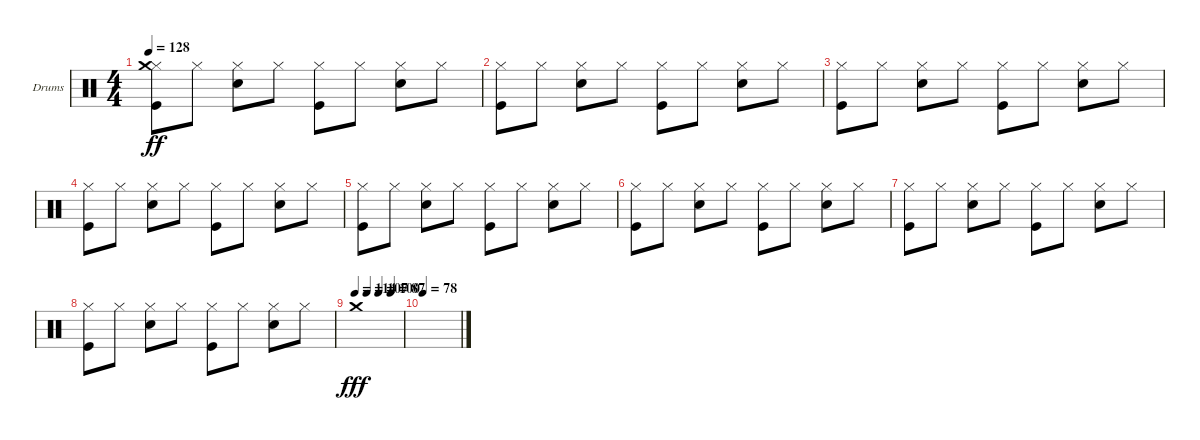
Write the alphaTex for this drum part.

\defaultSystemsLayout 4
\bracketExtendMode groupsimilarinstruments
\firstSystemTrackNameOrientation horizontal
\otherSystemsTrackNameOrientation horizontal
\track ("Drums" "Drums") {instrument percussion}
\staff {score}
\articulation defaults
\ts (4 4)
\tempo 128
\clef neutral
\ks c
("Kick (hit)" "Hi-Hat (closed)" "Crash medium (hit)").8{dy ff} "Hi-Hat (closed)".8 ("Snare (hit) 2" "Hi-Hat (closed)").8 "Hi-Hat (closed)".8 ("Kick (hit)" "Hi-Hat (closed)").8 "Hi-Hat (closed)".8 ("Snare (hit) 2" "Hi-Hat (closed)").8 "Hi-Hat (closed)".8 |
("Kick (hit)" "Hi-Hat (closed)").8 "Hi-Hat (closed)".8 ("Snare (hit) 2" "Hi-Hat (closed)").8 "Hi-Hat (closed)".8 ("Hi-Hat (closed)" "Kick (hit)").8 "Hi-Hat (closed)".8 ("Snare (hit) 2" "Hi-Hat (closed)").8 "Hi-Hat (closed)".8 |
("Kick (hit)" "Hi-Hat (closed)").8 "Hi-Hat (closed)".8 ("Snare (hit) 2" "Hi-Hat (closed)").8 "Hi-Hat (closed)".8 ("Kick (hit)" "Hi-Hat (closed)").8 "Hi-Hat (closed)".8 ("Snare (hit) 2" "Hi-Hat (closed)").8 "Hi-Hat (closed)".8 |
("Kick (hit)" "Hi-Hat (closed)").8 "Hi-Hat (closed)".8 ("Snare (hit) 2" "Hi-Hat (closed)").8 "Hi-Hat (closed)".8 ("Hi-Hat (closed)" "Kick (hit)").8 "Hi-Hat (closed)".8 ("Snare (hit) 2" "Hi-Hat (closed)").8 "Hi-Hat (closed)".8 |
("Kick (hit)" "Hi-Hat (closed)").8 "Hi-Hat (closed)".8 ("Snare (hit) 2" "Hi-Hat (closed)").8 "Hi-Hat (closed)".8 ("Kick (hit)" "Hi-Hat (closed)").8 "Hi-Hat (closed)".8 ("Snare (hit) 2" "Hi-Hat (closed)").8 "Hi-Hat (closed)".8 |
("Kick (hit)" "Hi-Hat (closed)").8 "Hi-Hat (closed)".8 ("Snare (hit) 2" "Hi-Hat (closed)").8 "Hi-Hat (closed)".8 ("Kick (hit)" "Hi-Hat (closed)").8 "Hi-Hat (closed)".8 ("Snare (hit) 2" "Hi-Hat (closed)").8 "Hi-Hat (closed)".8 |
("Kick (hit)" "Hi-Hat (closed)").8 "Hi-Hat (closed)".8 ("Snare (hit) 2" "Hi-Hat (closed)").8 "Hi-Hat (closed)".8 ("Hi-Hat (closed)" "Kick (hit)").8 "Hi-Hat (closed)".8 ("Snare (hit) 2" "Hi-Hat (closed)").8 "Hi-Hat (closed)".8 |
("Kick (hit)" "Hi-Hat (closed)").8 "Hi-Hat (closed)".8 ("Snare (hit) 2" "Hi-Hat (closed)").8 "Hi-Hat (closed)".8 ("Kick (hit)" "Hi-Hat (closed)").8 "Hi-Hat (closed)".8 ("Snare (hit) 2" "Hi-Hat (closed)").8 "Hi-Hat (closed)".8 |
\tempo 114
\tempo (107 0.25)
\tempo (100 0.5)
\tempo (87 0.75625)
"Crash medium (hit)".1{dy fff} |
\tempo 78
